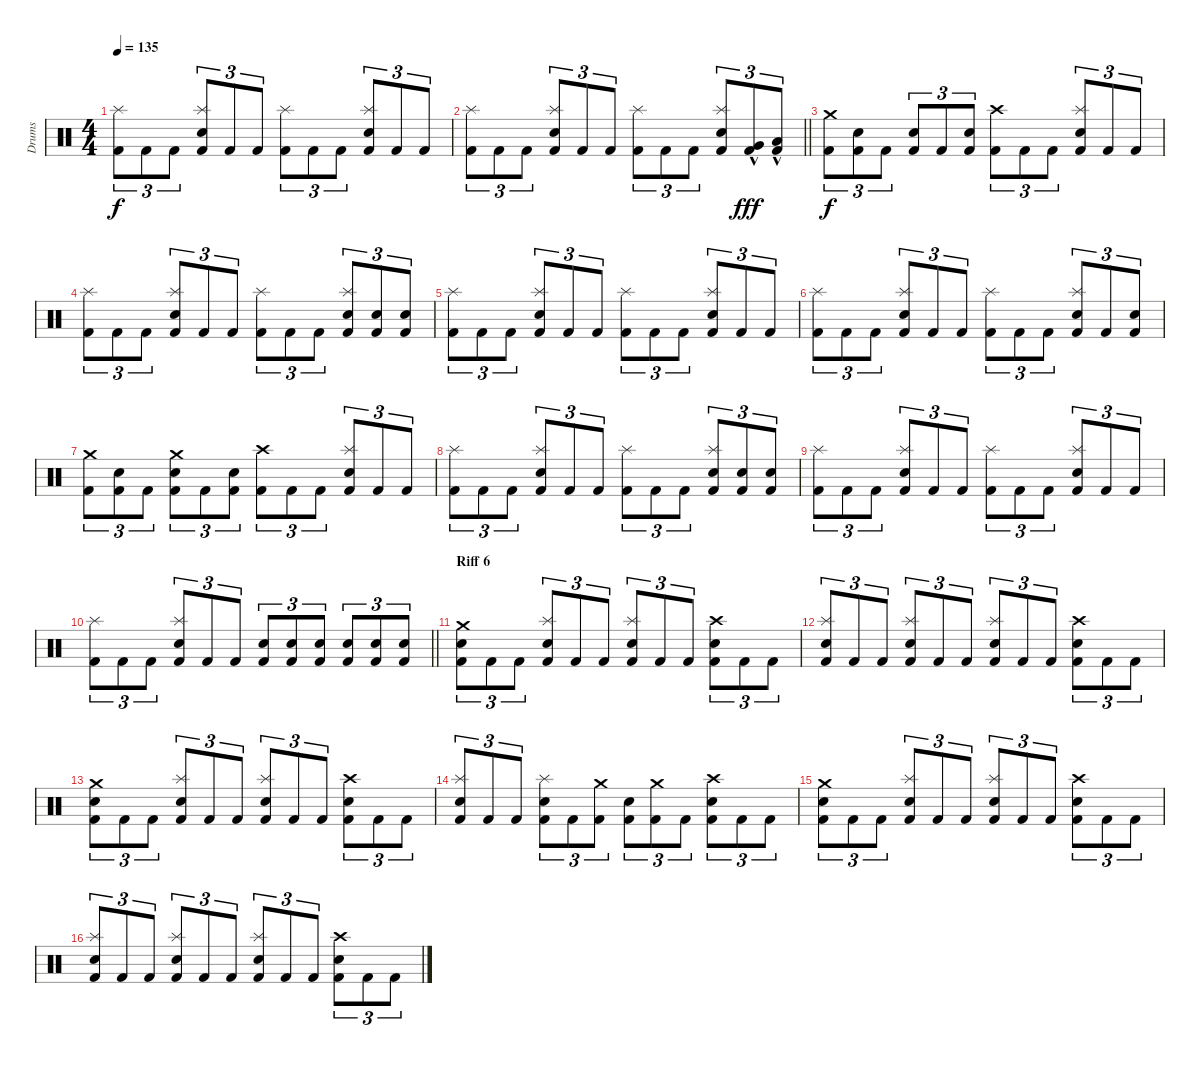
\track ("Drums" "Drums") {instrument percussion}
\staff {score}
\articulation defaults
\ts (4 4)
\tempo 135
\clef neutral
\ks c
("Kick (hit) 2" "Splash (hit)").8{tu (3 2) dy f} "Kick (hit) 2".8{tu (3 2)} "Kick (hit) 2".8{tu (3 2)} ("Kick (hit) 2" "Snare (hit) 2" "Splash (hit)").8{tu (3 2)} "Kick (hit) 2".8{tu (3 2)} "Kick (hit) 2".8{tu (3 2)} ("Kick (hit) 2" "Splash (hit)").8{tu (3 2)} "Kick (hit) 2".8{tu (3 2)} "Kick (hit) 2".8{tu (3 2)} ("Kick (hit) 2" "Snare (hit) 2" "Splash (hit)").8{tu (3 2)} "Kick (hit) 2".8{tu (3 2)} "Kick (hit) 2".8{tu (3 2)} |
\barLineRight lightlight
("Kick (hit) 2" "Splash (hit)").8{tu (3 2)} "Kick (hit) 2".8{tu (3 2)} "Kick (hit) 2".8{tu (3 2)} ("Kick (hit) 2" "Snare (hit) 2" "Splash (hit)").8{tu (3 2)} "Kick (hit) 2".8{tu (3 2)} "Kick (hit) 2".8{tu (3 2)} ("Kick (hit) 2" "Splash (hit)").8{tu (3 2)} "Kick (hit) 2".8{tu (3 2)} "Kick (hit) 2".8{tu (3 2)} ("Kick (hit) 2" "Snare (hit) 2" "Splash (hit)").8{tu (3 2)} ("Kick (hit) 2" "Very Low Tom (hit)"{hac}).8{tu (3 2) dy fff} ("Kick (hit) 2" "Low Floor Tom (hit)"{hac}).8{tu (3 2)} |
\section ("" "")
("Kick (hit) 2" "Crash medium (hit)").8{tu (3 2) dy f} ("Kick (hit) 2" "Snare (hit) 2").8{tu (3 2)} "Kick (hit) 2".8{tu (3 2)} ("Kick (hit) 2" "Snare (hit) 2").8{tu (3 2)} "Kick (hit) 2".8{tu (3 2)} ("Kick (hit) 2" "Snare (hit) 2").8{tu (3 2)} ("Kick (hit) 2" "Crash high (hit)").8{tu (3 2)} "Kick (hit) 2".8{tu (3 2)} "Kick (hit) 2".8{tu (3 2)} ("Kick (hit) 2" "Snare (hit) 2" "Splash (hit)").8{tu (3 2)} "Kick (hit) 2".8{tu (3 2)} "Kick (hit) 2".8{tu (3 2)} |
("Kick (hit) 2" "Splash (hit)").8{tu (3 2)} "Kick (hit) 2".8{tu (3 2)} "Kick (hit) 2".8{tu (3 2)} ("Kick (hit) 2" "Snare (hit) 2" "Splash (hit)").8{tu (3 2)} "Kick (hit) 2".8{tu (3 2)} "Kick (hit) 2".8{tu (3 2)} ("Kick (hit) 2" "Splash (hit)").8{tu (3 2)} "Kick (hit) 2".8{tu (3 2)} "Kick (hit) 2".8{tu (3 2)} ("Kick (hit) 2" "Snare (hit) 2" "Splash (hit)").8{tu (3 2)} ("Kick (hit) 2" "Snare (hit) 2").8{tu (3 2)} ("Kick (hit) 2" "Snare (hit) 2").8{tu (3 2)} |
("Kick (hit) 2" "Splash (hit)").8{tu (3 2)} "Kick (hit) 2".8{tu (3 2)} "Kick (hit) 2".8{tu (3 2)} ("Kick (hit) 2" "Snare (hit) 2" "Splash (hit)").8{tu (3 2)} "Kick (hit) 2".8{tu (3 2)} "Kick (hit) 2".8{tu (3 2)} ("Kick (hit) 2" "Splash (hit)").8{tu (3 2)} "Kick (hit) 2".8{tu (3 2)} "Kick (hit) 2".8{tu (3 2)} ("Kick (hit) 2" "Snare (hit) 2" "Splash (hit)").8{tu (3 2)} "Kick (hit) 2".8{tu (3 2)} "Kick (hit) 2".8{tu (3 2)} |
("Kick (hit) 2" "Splash (hit)").8{tu (3 2)} "Kick (hit) 2".8{tu (3 2)} "Kick (hit) 2".8{tu (3 2)} ("Kick (hit) 2" "Snare (hit) 2" "Splash (hit)").8{tu (3 2)} "Kick (hit) 2".8{tu (3 2)} "Kick (hit) 2".8{tu (3 2)} ("Kick (hit) 2" "Splash (hit)").8{tu (3 2)} "Kick (hit) 2".8{tu (3 2)} "Kick (hit) 2".8{tu (3 2)} ("Kick (hit) 2" "Snare (hit) 2" "Splash (hit)").8{tu (3 2)} "Kick (hit) 2".8{tu (3 2)} ("Kick (hit) 2" "Snare (hit) 2").8{tu (3 2)} |
("Kick (hit) 2" "Crash medium (hit)").8{tu (3 2)} ("Kick (hit) 2" "Snare (hit) 2").8{tu (3 2)} "Kick (hit) 2".8{tu (3 2)} ("Kick (hit) 2" "Snare (hit) 2" "Crash medium (hit)").8{tu (3 2)} "Kick (hit) 2".8{tu (3 2)} ("Kick (hit) 2" "Snare (hit) 2").8{tu (3 2)} ("Kick (hit) 2" "Crash high (hit)").8{tu (3 2)} "Kick (hit) 2".8{tu (3 2)} "Kick (hit) 2".8{tu (3 2)} ("Kick (hit) 2" "Snare (hit) 2" "Splash (hit)").8{tu (3 2)} "Kick (hit) 2".8{tu (3 2)} "Kick (hit) 2".8{tu (3 2)} |
("Kick (hit) 2" "Splash (hit)").8{tu (3 2)} "Kick (hit) 2".8{tu (3 2)} "Kick (hit) 2".8{tu (3 2)} ("Kick (hit) 2" "Snare (hit) 2" "Splash (hit)").8{tu (3 2)} "Kick (hit) 2".8{tu (3 2)} "Kick (hit) 2".8{tu (3 2)} ("Kick (hit) 2" "Splash (hit)").8{tu (3 2)} "Kick (hit) 2".8{tu (3 2)} "Kick (hit) 2".8{tu (3 2)} ("Kick (hit) 2" "Snare (hit) 2" "Splash (hit)").8{tu (3 2)} ("Kick (hit) 2" "Snare (hit) 2").8{tu (3 2)} ("Kick (hit) 2" "Snare (hit) 2").8{tu (3 2)} |
("Kick (hit) 2" "Splash (hit)").8{tu (3 2)} "Kick (hit) 2".8{tu (3 2)} "Kick (hit) 2".8{tu (3 2)} ("Kick (hit) 2" "Snare (hit) 2" "Splash (hit)").8{tu (3 2)} "Kick (hit) 2".8{tu (3 2)} "Kick (hit) 2".8{tu (3 2)} ("Kick (hit) 2" "Splash (hit)").8{tu (3 2)} "Kick (hit) 2".8{tu (3 2)} "Kick (hit) 2".8{tu (3 2)} ("Kick (hit) 2" "Snare (hit) 2" "Splash (hit)").8{tu (3 2)} "Kick (hit) 2".8{tu (3 2)} "Kick (hit) 2".8{tu (3 2)} |
\barLineRight lightlight
("Kick (hit) 2" "Splash (hit)").8{tu (3 2)} "Kick (hit) 2".8{tu (3 2)} "Kick (hit) 2".8{tu (3 2)} ("Kick (hit) 2" "Snare (hit) 2" "Splash (hit)").8{tu (3 2)} "Kick (hit) 2".8{tu (3 2)} "Kick (hit) 2".8{tu (3 2)} ("Kick (hit) 2" "Snare (hit) 2").8{tu (3 2)} ("Kick (hit) 2" "Snare (hit) 2").8{tu (3 2)} ("Kick (hit) 2" "Snare (hit) 2").8{tu (3 2)} ("Kick (hit) 2" "Snare (hit) 2").8{tu (3 2)} ("Kick (hit) 2" "Snare (hit) 2").8{tu (3 2)} ("Kick (hit) 2" "Snare (hit) 2").8{tu (3 2)} |
\section ("" "Riff 6")
("Kick (hit) 2" "Snare (hit) 2" "Crash medium (hit)").8{tu (3 2)} "Kick (hit) 2".8{tu (3 2)} "Kick (hit) 2".8{tu (3 2)} ("Kick (hit) 2" "Snare (hit) 2" "Splash (hit)").8{tu (3 2)} "Kick (hit) 2".8{tu (3 2)} "Kick (hit) 2".8{tu (3 2)} ("Kick (hit) 2" "Snare (hit) 2" "Splash (hit)").8{tu (3 2)} "Kick (hit) 2".8{tu (3 2)} "Kick (hit) 2".8{tu (3 2)} ("Kick (hit) 2" "Snare (hit) 2" "Crash high (hit)").8{tu (3 2)} "Kick (hit) 2".8{tu (3 2)} "Kick (hit) 2".8{tu (3 2)} |
("Kick (hit) 2" "Snare (hit) 2" "Splash (hit)").8{tu (3 2)} "Kick (hit) 2".8{tu (3 2)} "Kick (hit) 2".8{tu (3 2)} ("Kick (hit) 2" "Snare (hit) 2" "Splash (hit)").8{tu (3 2)} "Kick (hit) 2".8{tu (3 2)} "Kick (hit) 2".8{tu (3 2)} ("Kick (hit) 2" "Snare (hit) 2" "Splash (hit)").8{tu (3 2)} "Kick (hit) 2".8{tu (3 2)} "Kick (hit) 2".8{tu (3 2)} ("Kick (hit) 2" "Snare (hit) 2" "Crash high (hit)").8{tu (3 2)} "Kick (hit) 2".8{tu (3 2)} "Kick (hit) 2".8{tu (3 2)} |
("Kick (hit) 2" "Snare (hit) 2" "Crash medium (hit)").8{tu (3 2)} "Kick (hit) 2".8{tu (3 2)} "Kick (hit) 2".8{tu (3 2)} ("Kick (hit) 2" "Snare (hit) 2" "Splash (hit)").8{tu (3 2)} "Kick (hit) 2".8{tu (3 2)} "Kick (hit) 2".8{tu (3 2)} ("Kick (hit) 2" "Snare (hit) 2" "Splash (hit)").8{tu (3 2)} "Kick (hit) 2".8{tu (3 2)} "Kick (hit) 2".8{tu (3 2)} ("Kick (hit) 2" "Snare (hit) 2" "Crash high (hit)").8{tu (3 2)} "Kick (hit) 2".8{tu (3 2)} "Kick (hit) 2".8{tu (3 2)} |
("Kick (hit) 2" "Snare (hit) 2" "Splash (hit)").8{tu (3 2)} "Kick (hit) 2".8{tu (3 2)} "Kick (hit) 2".8{tu (3 2)} ("Kick (hit) 2" "Snare (hit) 2" "Splash (hit)").8{tu (3 2)} "Kick (hit) 2".8{tu (3 2)} ("Kick (hit) 2" "Crash medium (hit)").8{tu (3 2)} ("Kick (hit) 2" "Snare (hit) 2").8{tu (3 2)} ("Kick (hit) 2" "Crash medium (hit)").8{tu (3 2)} "Kick (hit) 2".8{tu (3 2)} ("Kick (hit) 2" "Snare (hit) 2" "Crash high (hit)").8{tu (3 2)} "Kick (hit) 2".8{tu (3 2)} "Kick (hit) 2".8{tu (3 2)} |
("Kick (hit) 2" "Snare (hit) 2" "Crash medium (hit)").8{tu (3 2)} "Kick (hit) 2".8{tu (3 2)} "Kick (hit) 2".8{tu (3 2)} ("Kick (hit) 2" "Snare (hit) 2" "Splash (hit)").8{tu (3 2)} "Kick (hit) 2".8{tu (3 2)} "Kick (hit) 2".8{tu (3 2)} ("Kick (hit) 2" "Snare (hit) 2" "Splash (hit)").8{tu (3 2)} "Kick (hit) 2".8{tu (3 2)} "Kick (hit) 2".8{tu (3 2)} ("Kick (hit) 2" "Snare (hit) 2" "Crash high (hit)").8{tu (3 2)} "Kick (hit) 2".8{tu (3 2)} "Kick (hit) 2".8{tu (3 2)} |
("Kick (hit) 2" "Snare (hit) 2" "Splash (hit)").8{tu (3 2)} "Kick (hit) 2".8{tu (3 2)} "Kick (hit) 2".8{tu (3 2)} ("Kick (hit) 2" "Snare (hit) 2" "Splash (hit)").8{tu (3 2)} "Kick (hit) 2".8{tu (3 2)} "Kick (hit) 2".8{tu (3 2)} ("Kick (hit) 2" "Snare (hit) 2" "Splash (hit)").8{tu (3 2)} "Kick (hit) 2".8{tu (3 2)} "Kick (hit) 2".8{tu (3 2)} ("Kick (hit) 2" "Snare (hit) 2" "Crash high (hit)").8{tu (3 2)} "Kick (hit) 2".8{tu (3 2)} "Kick (hit) 2".8{tu (3 2)}
